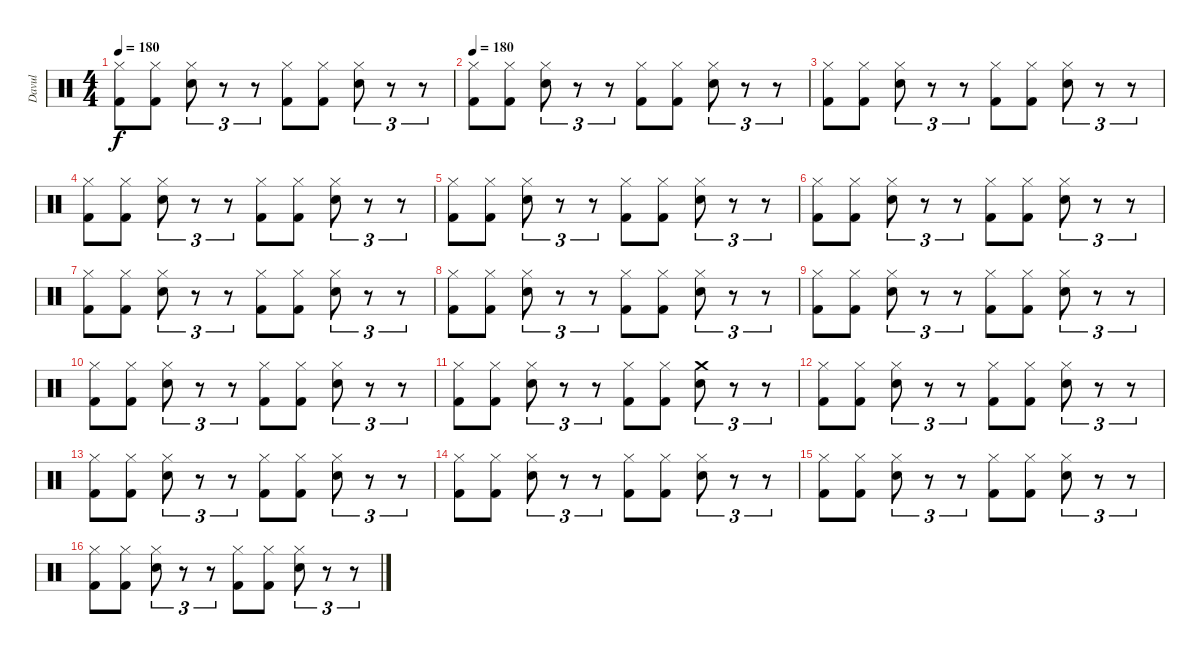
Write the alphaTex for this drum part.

\track ("Davul" "Davul") {instrument percussion}
\staff {score}
\articulation defaults
\ts (4 4)
\tempo 180
\clef neutral
\ks c
("Hi-Hat (closed)" "Kick (hit) 2").8{dy f} ("Hi-Hat (closed)" "Kick (hit) 2").8 ("Hi-Hat (closed)" "Snare (hit) 2").8{tu (3 2)} r.8{tu (3 2)} r.8{tu (3 2)} ("Hi-Hat (closed)" "Kick (hit) 2").8 ("Hi-Hat (closed)" "Kick (hit) 2").8 ("Hi-Hat (closed)" "Snare (hit) 2").8{tu (3 2)} r.8{tu (3 2)} r.8{tu (3 2)} |
\tempo 180
("Hi-Hat (closed)" "Kick (hit) 2").8 ("Hi-Hat (closed)" "Kick (hit) 2").8 ("Hi-Hat (closed)" "Snare (hit) 2").8{tu (3 2)} r.8{tu (3 2)} r.8{tu (3 2)} ("Hi-Hat (closed)" "Kick (hit) 2").8 ("Hi-Hat (closed)" "Kick (hit) 2").8 ("Hi-Hat (closed)" "Snare (hit) 2").8{tu (3 2)} r.8{tu (3 2)} r.8{tu (3 2)} |
("Hi-Hat (closed)" "Kick (hit) 2").8 ("Hi-Hat (closed)" "Kick (hit) 2").8 ("Hi-Hat (closed)" "Snare (hit) 2").8{tu (3 2)} r.8{tu (3 2)} r.8{tu (3 2)} ("Hi-Hat (closed)" "Kick (hit) 2").8 ("Hi-Hat (closed)" "Kick (hit) 2").8 ("Hi-Hat (closed)" "Snare (hit) 2").8{tu (3 2)} r.8{tu (3 2)} r.8{tu (3 2)} |
("Hi-Hat (closed)" "Kick (hit) 2").8 ("Hi-Hat (closed)" "Kick (hit) 2").8 ("Hi-Hat (closed)" "Snare (hit) 2").8{tu (3 2)} r.8{tu (3 2)} r.8{tu (3 2)} ("Hi-Hat (closed)" "Kick (hit) 2").8 ("Hi-Hat (closed)" "Kick (hit) 2").8 ("Hi-Hat (closed)" "Snare (hit) 2").8{tu (3 2)} r.8{tu (3 2)} r.8{tu (3 2)} |
("Hi-Hat (closed)" "Kick (hit) 2").8 ("Hi-Hat (closed)" "Kick (hit) 2").8 ("Hi-Hat (closed)" "Snare (hit) 2").8{tu (3 2)} r.8{tu (3 2)} r.8{tu (3 2)} ("Hi-Hat (closed)" "Kick (hit) 2").8 ("Hi-Hat (closed)" "Kick (hit) 2").8 ("Hi-Hat (closed)" "Snare (hit) 2").8{tu (3 2)} r.8{tu (3 2)} r.8{tu (3 2)} |
("Hi-Hat (closed)" "Kick (hit) 2").8 ("Hi-Hat (closed)" "Kick (hit) 2").8 ("Hi-Hat (closed)" "Snare (hit) 2").8{tu (3 2)} r.8{tu (3 2)} r.8{tu (3 2)} ("Hi-Hat (closed)" "Kick (hit) 2").8 ("Hi-Hat (closed)" "Kick (hit) 2").8 ("Hi-Hat (closed)" "Snare (hit) 2").8{tu (3 2)} r.8{tu (3 2)} r.8{tu (3 2)} |
("Hi-Hat (closed)" "Kick (hit) 2").8 ("Hi-Hat (closed)" "Kick (hit) 2").8 ("Hi-Hat (closed)" "Snare (hit) 2").8{tu (3 2)} r.8{tu (3 2)} r.8{tu (3 2)} ("Hi-Hat (closed)" "Kick (hit) 2").8 ("Hi-Hat (closed)" "Kick (hit) 2").8 ("Hi-Hat (closed)" "Snare (hit) 2").8{tu (3 2)} r.8{tu (3 2)} r.8{tu (3 2)} |
("Hi-Hat (closed)" "Kick (hit) 2").8 ("Hi-Hat (closed)" "Kick (hit) 2").8 ("Hi-Hat (closed)" "Snare (hit) 2").8{tu (3 2)} r.8{tu (3 2)} r.8{tu (3 2)} ("Hi-Hat (closed)" "Kick (hit) 2").8 ("Hi-Hat (closed)" "Kick (hit) 2").8 ("Hi-Hat (closed)" "Snare (hit) 2").8{tu (3 2)} r.8{tu (3 2)} r.8{tu (3 2)} |
("Hi-Hat (closed)" "Kick (hit) 2").8 ("Hi-Hat (closed)" "Kick (hit) 2").8 ("Hi-Hat (closed)" "Snare (hit) 2").8{tu (3 2)} r.8{tu (3 2)} r.8{tu (3 2)} ("Hi-Hat (closed)" "Kick (hit) 2").8 ("Hi-Hat (closed)" "Kick (hit) 2").8 ("Hi-Hat (closed)" "Snare (hit) 2").8{tu (3 2)} r.8{tu (3 2)} r.8{tu (3 2)} |
("Hi-Hat (closed)" "Kick (hit) 2").8 ("Hi-Hat (closed)" "Kick (hit) 2").8 ("Hi-Hat (closed)" "Snare (hit) 2").8{tu (3 2)} r.8{tu (3 2)} r.8{tu (3 2)} ("Hi-Hat (closed)" "Kick (hit) 2").8 ("Hi-Hat (closed)" "Kick (hit) 2").8 ("Hi-Hat (closed)" "Snare (hit) 2").8{tu (3 2)} r.8{tu (3 2)} r.8{tu (3 2)} |
("Hi-Hat (closed)" "Kick (hit) 2").8 ("Hi-Hat (closed)" "Kick (hit) 2").8 ("Hi-Hat (closed)" "Snare (hit) 2").8{tu (3 2)} r.8{tu (3 2)} r.8{tu (3 2)} ("Hi-Hat (closed)" "Kick (hit) 2").8 ("Hi-Hat (closed)" "Kick (hit) 2").8 ("Crash medium (hit)" "Snare (hit) 2").8{tu (3 2)} r.8{tu (3 2)} r.8{tu (3 2)} |
("Hi-Hat (closed)" "Kick (hit) 2").8 ("Hi-Hat (closed)" "Kick (hit) 2").8 ("Hi-Hat (closed)" "Snare (hit) 2").8{tu (3 2)} r.8{tu (3 2)} r.8{tu (3 2)} ("Hi-Hat (closed)" "Kick (hit) 2").8 ("Hi-Hat (closed)" "Kick (hit) 2").8 ("Hi-Hat (closed)" "Snare (hit) 2").8{tu (3 2)} r.8{tu (3 2)} r.8{tu (3 2)} |
("Hi-Hat (closed)" "Kick (hit) 2").8 ("Hi-Hat (closed)" "Kick (hit) 2").8 ("Hi-Hat (closed)" "Snare (hit) 2").8{tu (3 2)} r.8{tu (3 2)} r.8{tu (3 2)} ("Hi-Hat (closed)" "Kick (hit) 2").8 ("Hi-Hat (closed)" "Kick (hit) 2").8 ("Hi-Hat (closed)" "Snare (hit) 2").8{tu (3 2)} r.8{tu (3 2)} r.8{tu (3 2)} |
("Hi-Hat (closed)" "Kick (hit) 2").8 ("Hi-Hat (closed)" "Kick (hit) 2").8 ("Hi-Hat (closed)" "Snare (hit) 2").8{tu (3 2)} r.8{tu (3 2)} r.8{tu (3 2)} ("Hi-Hat (closed)" "Kick (hit) 2").8 ("Hi-Hat (closed)" "Kick (hit) 2").8 ("Hi-Hat (closed)" "Snare (hit) 2").8{tu (3 2)} r.8{tu (3 2)} r.8{tu (3 2)} |
("Hi-Hat (closed)" "Kick (hit) 2").8 ("Hi-Hat (closed)" "Kick (hit) 2").8 ("Hi-Hat (closed)" "Snare (hit) 2").8{tu (3 2)} r.8{tu (3 2)} r.8{tu (3 2)} ("Hi-Hat (closed)" "Kick (hit) 2").8 ("Hi-Hat (closed)" "Kick (hit) 2").8 ("Hi-Hat (closed)" "Snare (hit) 2").8{tu (3 2)} r.8{tu (3 2)} r.8{tu (3 2)} |
("Hi-Hat (closed)" "Kick (hit) 2").8 ("Hi-Hat (closed)" "Kick (hit) 2").8 ("Hi-Hat (closed)" "Snare (hit) 2").8{tu (3 2)} r.8{tu (3 2)} r.8{tu (3 2)} ("Hi-Hat (closed)" "Kick (hit) 2").8 ("Hi-Hat (closed)" "Kick (hit) 2").8 ("Hi-Hat (closed)" "Snare (hit) 2").8{tu (3 2)} r.8{tu (3 2)} r.8{tu (3 2)}
